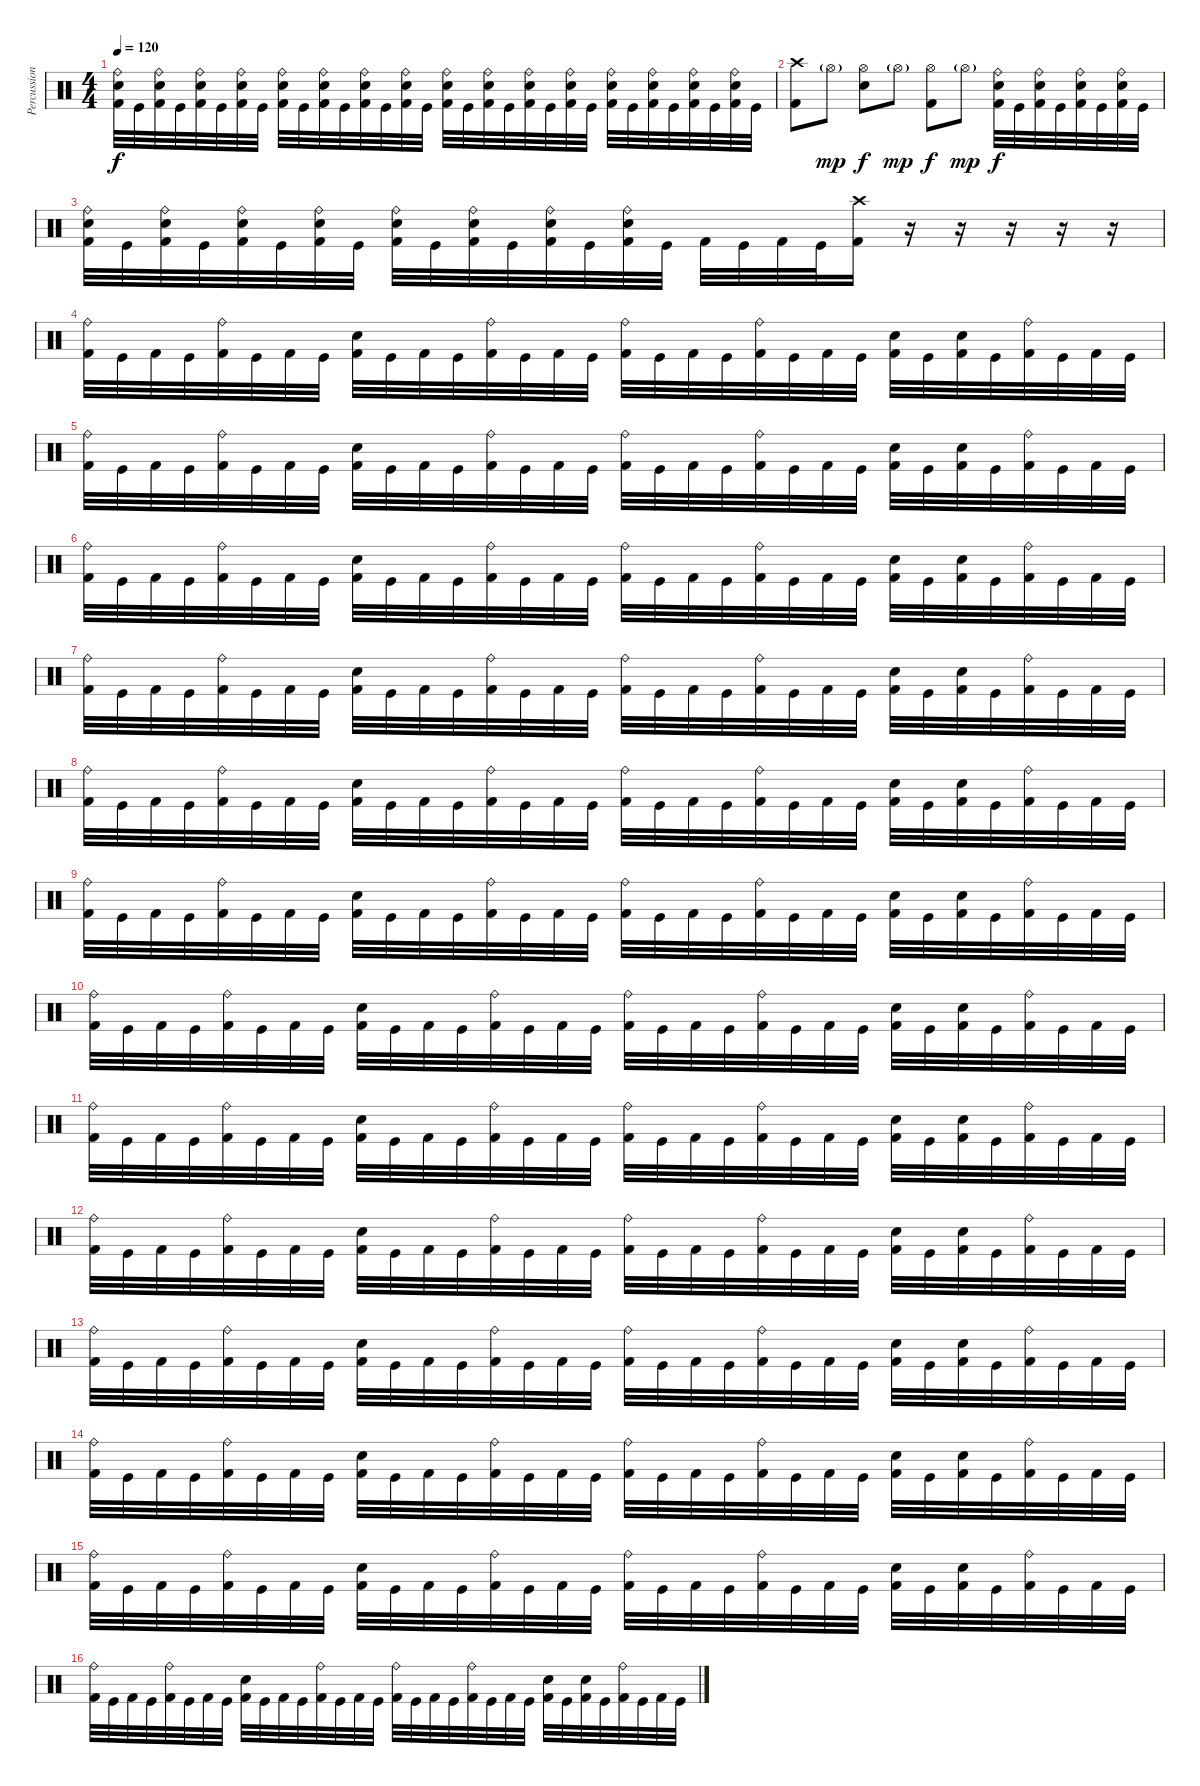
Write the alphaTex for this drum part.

\track ("Percussion" "Percussion") {instrument percussion}
\staff {score}
\articulation defaults
\ts (4 4)
\tempo 120
\clef neutral
\ks c
("Kick (hit) 2" "Electric Snare (hit)" "Ride (bell)").32{dy f} "Kick (hit)".32 ("Kick (hit) 2" "Electric Snare (hit)" "Ride (bell)").32 "Kick (hit)".32 ("Kick (hit) 2" "Electric Snare (hit)" "Ride (bell)").32 "Kick (hit)".32 ("Kick (hit) 2" "Electric Snare (hit)" "Ride (bell)").32 "Kick (hit)".32 ("Kick (hit) 2" "Electric Snare (hit)" "Ride (bell)").32 "Kick (hit)".32 ("Kick (hit) 2" "Electric Snare (hit)" "Ride (bell)").32 "Kick (hit)".32 ("Kick (hit) 2" "Electric Snare (hit)" "Ride (bell)").32 "Kick (hit)".32 ("Kick (hit) 2" "Electric Snare (hit)" "Ride (bell)").32 "Kick (hit)".32 ("Kick (hit) 2" "Electric Snare (hit)" "Ride (bell)").32 "Kick (hit)".32 ("Kick (hit) 2" "Electric Snare (hit)" "Ride (bell)").32 "Kick (hit)".32 ("Kick (hit) 2" "Electric Snare (hit)" "Ride (bell)").32 "Kick (hit)".32 ("Kick (hit) 2" "Electric Snare (hit)" "Ride (bell)").32 "Kick (hit)".32 ("Kick (hit) 2" "Electric Snare (hit)" "Ride (bell)").32 "Kick (hit)".32 ("Kick (hit) 2" "Electric Snare (hit)" "Ride (bell)").32 "Kick (hit)".32 ("Kick (hit) 2" "Electric Snare (hit)" "Ride (bell)").32 "Kick (hit)".32 ("Kick (hit) 2" "Electric Snare (hit)" "Ride (bell)").32 "Kick (hit)".32 |
("Kick (hit) 2" "Crash high (hit)").8 "Hi-Hat (open)"{g}.8{dy mp} ("Electric Snare (hit)" "Hi-Hat (open)").8{dy f} "Hi-Hat (open)"{g}.8{dy mp} ("Kick (hit) 2" "Hi-Hat (open)").8{dy f} "Hi-Hat (open)"{g}.8{dy mp} ("Kick (hit) 2" "Electric Snare (hit)" "Ride (bell)").32{dy f} "Kick (hit)".32 ("Kick (hit) 2" "Electric Snare (hit)" "Ride (bell)").32 "Kick (hit)".32 ("Kick (hit) 2" "Electric Snare (hit)" "Ride (bell)").32 "Kick (hit)".32 ("Kick (hit) 2" "Electric Snare (hit)" "Ride (bell)").32 "Kick (hit)".32 |
("Kick (hit) 2" "Electric Snare (hit)" "Ride (bell)").32 "Kick (hit)".32 ("Kick (hit) 2" "Electric Snare (hit)" "Ride (bell)").32 "Kick (hit)".32 ("Kick (hit) 2" "Electric Snare (hit)" "Ride (bell)").32 "Kick (hit)".32 ("Kick (hit) 2" "Electric Snare (hit)" "Ride (bell)").32 "Kick (hit)".32 ("Kick (hit) 2" "Electric Snare (hit)" "Ride (bell)").32 "Kick (hit)".32 ("Kick (hit) 2" "Electric Snare (hit)" "Ride (bell)").32 "Kick (hit)".32 ("Kick (hit) 2" "Electric Snare (hit)" "Ride (bell)").32 "Kick (hit)".32 ("Kick (hit) 2" "Electric Snare (hit)" "Ride (bell)").32 "Kick (hit)".32 "Kick (hit) 2".32 "Kick (hit)".32 "Kick (hit) 2".32 "Kick (hit)".32 ("Kick (hit) 2" "Crash high (hit)").16 r.16 r.16 r.16 r.16 r.16 |
("Kick (hit) 2" "Ride (bell)").32 "Kick (hit)".32 "Kick (hit) 2".32 "Kick (hit)".32 ("Kick (hit) 2" "Ride (bell)").32 "Kick (hit)".32 "Kick (hit) 2".32 "Kick (hit)".32 ("Kick (hit) 2" "Electric Snare (hit)").32 "Kick (hit)".32 "Kick (hit) 2".32 "Kick (hit)".32 ("Kick (hit) 2" "Ride (bell)").32 "Kick (hit)".32 "Kick (hit) 2".32 "Kick (hit)".32 ("Kick (hit) 2" "Ride (bell)").32 "Kick (hit)".32 "Kick (hit) 2".32 "Kick (hit)".32 ("Kick (hit) 2" "Ride (bell)").32 "Kick (hit)".32 "Kick (hit) 2".32 "Kick (hit)".32 ("Kick (hit) 2" "Electric Snare (hit)").32 "Kick (hit)".32 ("Kick (hit) 2" "Electric Snare (hit)").32 "Kick (hit)".32 ("Kick (hit) 2" "Ride (bell)").32 "Kick (hit)".32 "Kick (hit) 2".32 "Kick (hit)".32 |
("Kick (hit) 2" "Ride (bell)").32 "Kick (hit)".32 "Kick (hit) 2".32 "Kick (hit)".32 ("Kick (hit) 2" "Ride (bell)").32 "Kick (hit)".32 "Kick (hit) 2".32 "Kick (hit)".32 ("Kick (hit) 2" "Electric Snare (hit)").32 "Kick (hit)".32 "Kick (hit) 2".32 "Kick (hit)".32 ("Kick (hit) 2" "Ride (bell)").32 "Kick (hit)".32 "Kick (hit) 2".32 "Kick (hit)".32 ("Kick (hit) 2" "Ride (bell)").32 "Kick (hit)".32 "Kick (hit) 2".32 "Kick (hit)".32 ("Kick (hit) 2" "Ride (bell)").32 "Kick (hit)".32 "Kick (hit) 2".32 "Kick (hit)".32 ("Kick (hit) 2" "Electric Snare (hit)").32 "Kick (hit)".32 ("Kick (hit) 2" "Electric Snare (hit)").32 "Kick (hit)".32 ("Kick (hit) 2" "Ride (bell)").32 "Kick (hit)".32 "Kick (hit) 2".32 "Kick (hit)".32 |
("Kick (hit) 2" "Ride (bell)").32 "Kick (hit)".32 "Kick (hit) 2".32 "Kick (hit)".32 ("Kick (hit) 2" "Ride (bell)").32 "Kick (hit)".32 "Kick (hit) 2".32 "Kick (hit)".32 ("Kick (hit) 2" "Electric Snare (hit)").32 "Kick (hit)".32 "Kick (hit) 2".32 "Kick (hit)".32 ("Kick (hit) 2" "Ride (bell)").32 "Kick (hit)".32 "Kick (hit) 2".32 "Kick (hit)".32 ("Kick (hit) 2" "Ride (bell)").32 "Kick (hit)".32 "Kick (hit) 2".32 "Kick (hit)".32 ("Kick (hit) 2" "Ride (bell)").32 "Kick (hit)".32 "Kick (hit) 2".32 "Kick (hit)".32 ("Kick (hit) 2" "Electric Snare (hit)").32 "Kick (hit)".32 ("Kick (hit) 2" "Electric Snare (hit)").32 "Kick (hit)".32 ("Kick (hit) 2" "Ride (bell)").32 "Kick (hit)".32 "Kick (hit) 2".32 "Kick (hit)".32 |
("Kick (hit) 2" "Ride (bell)").32 "Kick (hit)".32 "Kick (hit) 2".32 "Kick (hit)".32 ("Kick (hit) 2" "Ride (bell)").32 "Kick (hit)".32 "Kick (hit) 2".32 "Kick (hit)".32 ("Kick (hit) 2" "Electric Snare (hit)").32 "Kick (hit)".32 "Kick (hit) 2".32 "Kick (hit)".32 ("Kick (hit) 2" "Ride (bell)").32 "Kick (hit)".32 "Kick (hit) 2".32 "Kick (hit)".32 ("Kick (hit) 2" "Ride (bell)").32 "Kick (hit)".32 "Kick (hit) 2".32 "Kick (hit)".32 ("Kick (hit) 2" "Ride (bell)").32 "Kick (hit)".32 "Kick (hit) 2".32 "Kick (hit)".32 ("Kick (hit) 2" "Electric Snare (hit)").32 "Kick (hit)".32 ("Kick (hit) 2" "Electric Snare (hit)").32 "Kick (hit)".32 ("Kick (hit) 2" "Ride (bell)").32 "Kick (hit)".32 "Kick (hit) 2".32 "Kick (hit)".32 |
("Kick (hit) 2" "Ride (bell)").32 "Kick (hit)".32 "Kick (hit) 2".32 "Kick (hit)".32 ("Kick (hit) 2" "Ride (bell)").32 "Kick (hit)".32 "Kick (hit) 2".32 "Kick (hit)".32 ("Kick (hit) 2" "Electric Snare (hit)").32 "Kick (hit)".32 "Kick (hit) 2".32 "Kick (hit)".32 ("Kick (hit) 2" "Ride (bell)").32 "Kick (hit)".32 "Kick (hit) 2".32 "Kick (hit)".32 ("Kick (hit) 2" "Ride (bell)").32 "Kick (hit)".32 "Kick (hit) 2".32 "Kick (hit)".32 ("Kick (hit) 2" "Ride (bell)").32 "Kick (hit)".32 "Kick (hit) 2".32 "Kick (hit)".32 ("Kick (hit) 2" "Electric Snare (hit)").32 "Kick (hit)".32 ("Kick (hit) 2" "Electric Snare (hit)").32 "Kick (hit)".32 ("Kick (hit) 2" "Ride (bell)").32 "Kick (hit)".32 "Kick (hit) 2".32 "Kick (hit)".32 |
("Kick (hit) 2" "Ride (bell)").32 "Kick (hit)".32 "Kick (hit) 2".32 "Kick (hit)".32 ("Kick (hit) 2" "Ride (bell)").32 "Kick (hit)".32 "Kick (hit) 2".32 "Kick (hit)".32 ("Kick (hit) 2" "Electric Snare (hit)").32 "Kick (hit)".32 "Kick (hit) 2".32 "Kick (hit)".32 ("Kick (hit) 2" "Ride (bell)").32 "Kick (hit)".32 "Kick (hit) 2".32 "Kick (hit)".32 ("Kick (hit) 2" "Ride (bell)").32 "Kick (hit)".32 "Kick (hit) 2".32 "Kick (hit)".32 ("Kick (hit) 2" "Ride (bell)").32 "Kick (hit)".32 "Kick (hit) 2".32 "Kick (hit)".32 ("Kick (hit) 2" "Electric Snare (hit)").32 "Kick (hit)".32 ("Kick (hit) 2" "Electric Snare (hit)").32 "Kick (hit)".32 ("Kick (hit) 2" "Ride (bell)").32 "Kick (hit)".32 "Kick (hit) 2".32 "Kick (hit)".32 |
("Kick (hit) 2" "Ride (bell)").32 "Kick (hit)".32 "Kick (hit) 2".32 "Kick (hit)".32 ("Kick (hit) 2" "Ride (bell)").32 "Kick (hit)".32 "Kick (hit) 2".32 "Kick (hit)".32 ("Kick (hit) 2" "Electric Snare (hit)").32 "Kick (hit)".32 "Kick (hit) 2".32 "Kick (hit)".32 ("Kick (hit) 2" "Ride (bell)").32 "Kick (hit)".32 "Kick (hit) 2".32 "Kick (hit)".32 ("Kick (hit) 2" "Ride (bell)").32 "Kick (hit)".32 "Kick (hit) 2".32 "Kick (hit)".32 ("Kick (hit) 2" "Ride (bell)").32 "Kick (hit)".32 "Kick (hit) 2".32 "Kick (hit)".32 ("Kick (hit) 2" "Electric Snare (hit)").32 "Kick (hit)".32 ("Kick (hit) 2" "Electric Snare (hit)").32 "Kick (hit)".32 ("Kick (hit) 2" "Ride (bell)").32 "Kick (hit)".32 "Kick (hit) 2".32 "Kick (hit)".32 |
("Kick (hit) 2" "Ride (bell)").32 "Kick (hit)".32 "Kick (hit) 2".32 "Kick (hit)".32 ("Kick (hit) 2" "Ride (bell)").32 "Kick (hit)".32 "Kick (hit) 2".32 "Kick (hit)".32 ("Kick (hit) 2" "Electric Snare (hit)").32 "Kick (hit)".32 "Kick (hit) 2".32 "Kick (hit)".32 ("Kick (hit) 2" "Ride (bell)").32 "Kick (hit)".32 "Kick (hit) 2".32 "Kick (hit)".32 ("Kick (hit) 2" "Ride (bell)").32 "Kick (hit)".32 "Kick (hit) 2".32 "Kick (hit)".32 ("Kick (hit) 2" "Ride (bell)").32 "Kick (hit)".32 "Kick (hit) 2".32 "Kick (hit)".32 ("Kick (hit) 2" "Electric Snare (hit)").32 "Kick (hit)".32 ("Kick (hit) 2" "Electric Snare (hit)").32 "Kick (hit)".32 ("Kick (hit) 2" "Ride (bell)").32 "Kick (hit)".32 "Kick (hit) 2".32 "Kick (hit)".32 |
("Kick (hit) 2" "Ride (bell)").32 "Kick (hit)".32 "Kick (hit) 2".32 "Kick (hit)".32 ("Kick (hit) 2" "Ride (bell)").32 "Kick (hit)".32 "Kick (hit) 2".32 "Kick (hit)".32 ("Kick (hit) 2" "Electric Snare (hit)").32 "Kick (hit)".32 "Kick (hit) 2".32 "Kick (hit)".32 ("Kick (hit) 2" "Ride (bell)").32 "Kick (hit)".32 "Kick (hit) 2".32 "Kick (hit)".32 ("Kick (hit) 2" "Ride (bell)").32 "Kick (hit)".32 "Kick (hit) 2".32 "Kick (hit)".32 ("Kick (hit) 2" "Ride (bell)").32 "Kick (hit)".32 "Kick (hit) 2".32 "Kick (hit)".32 ("Kick (hit) 2" "Electric Snare (hit)").32 "Kick (hit)".32 ("Kick (hit) 2" "Electric Snare (hit)").32 "Kick (hit)".32 ("Kick (hit) 2" "Ride (bell)").32 "Kick (hit)".32 "Kick (hit) 2".32 "Kick (hit)".32 |
("Kick (hit) 2" "Ride (bell)").32 "Kick (hit)".32 "Kick (hit) 2".32 "Kick (hit)".32 ("Kick (hit) 2" "Ride (bell)").32 "Kick (hit)".32 "Kick (hit) 2".32 "Kick (hit)".32 ("Kick (hit) 2" "Electric Snare (hit)").32 "Kick (hit)".32 "Kick (hit) 2".32 "Kick (hit)".32 ("Kick (hit) 2" "Ride (bell)").32 "Kick (hit)".32 "Kick (hit) 2".32 "Kick (hit)".32 ("Kick (hit) 2" "Ride (bell)").32 "Kick (hit)".32 "Kick (hit) 2".32 "Kick (hit)".32 ("Kick (hit) 2" "Ride (bell)").32 "Kick (hit)".32 "Kick (hit) 2".32 "Kick (hit)".32 ("Kick (hit) 2" "Electric Snare (hit)").32 "Kick (hit)".32 ("Kick (hit) 2" "Electric Snare (hit)").32 "Kick (hit)".32 ("Kick (hit) 2" "Ride (bell)").32 "Kick (hit)".32 "Kick (hit) 2".32 "Kick (hit)".32 |
("Kick (hit) 2" "Ride (bell)").32 "Kick (hit)".32 "Kick (hit) 2".32 "Kick (hit)".32 ("Kick (hit) 2" "Ride (bell)").32 "Kick (hit)".32 "Kick (hit) 2".32 "Kick (hit)".32 ("Kick (hit) 2" "Electric Snare (hit)").32 "Kick (hit)".32 "Kick (hit) 2".32 "Kick (hit)".32 ("Kick (hit) 2" "Ride (bell)").32 "Kick (hit)".32 "Kick (hit) 2".32 "Kick (hit)".32 ("Kick (hit) 2" "Ride (bell)").32 "Kick (hit)".32 "Kick (hit) 2".32 "Kick (hit)".32 ("Kick (hit) 2" "Ride (bell)").32 "Kick (hit)".32 "Kick (hit) 2".32 "Kick (hit)".32 ("Kick (hit) 2" "Electric Snare (hit)").32 "Kick (hit)".32 ("Kick (hit) 2" "Electric Snare (hit)").32 "Kick (hit)".32 ("Kick (hit) 2" "Ride (bell)").32 "Kick (hit)".32 "Kick (hit) 2".32 "Kick (hit)".32 |
("Kick (hit) 2" "Ride (bell)").32 "Kick (hit)".32 "Kick (hit) 2".32 "Kick (hit)".32 ("Kick (hit) 2" "Ride (bell)").32 "Kick (hit)".32 "Kick (hit) 2".32 "Kick (hit)".32 ("Kick (hit) 2" "Electric Snare (hit)").32 "Kick (hit)".32 "Kick (hit) 2".32 "Kick (hit)".32 ("Kick (hit) 2" "Ride (bell)").32 "Kick (hit)".32 "Kick (hit) 2".32 "Kick (hit)".32 ("Kick (hit) 2" "Ride (bell)").32 "Kick (hit)".32 "Kick (hit) 2".32 "Kick (hit)".32 ("Kick (hit) 2" "Ride (bell)").32 "Kick (hit)".32 "Kick (hit) 2".32 "Kick (hit)".32 ("Kick (hit) 2" "Electric Snare (hit)").32 "Kick (hit)".32 ("Kick (hit) 2" "Electric Snare (hit)").32 "Kick (hit)".32 ("Kick (hit) 2" "Ride (bell)").32 "Kick (hit)".32 "Kick (hit) 2".32 "Kick (hit)".32 |
("Kick (hit) 2" "Ride (bell)").32 "Kick (hit)".32 "Kick (hit) 2".32 "Kick (hit)".32 ("Kick (hit) 2" "Ride (bell)").32 "Kick (hit)".32 "Kick (hit) 2".32 "Kick (hit)".32 ("Kick (hit) 2" "Electric Snare (hit)").32 "Kick (hit)".32 "Kick (hit) 2".32 "Kick (hit)".32 ("Kick (hit) 2" "Ride (bell)").32 "Kick (hit)".32 "Kick (hit) 2".32 "Kick (hit)".32 ("Kick (hit) 2" "Ride (bell)").32 "Kick (hit)".32 "Kick (hit) 2".32 "Kick (hit)".32 ("Kick (hit) 2" "Ride (bell)").32 "Kick (hit)".32 "Kick (hit) 2".32 "Kick (hit)".32 ("Kick (hit) 2" "Electric Snare (hit)").32 "Kick (hit)".32 ("Kick (hit) 2" "Electric Snare (hit)").32 "Kick (hit)".32 ("Kick (hit) 2" "Ride (bell)").32 "Kick (hit)".32 "Kick (hit) 2".32 "Kick (hit)".32
